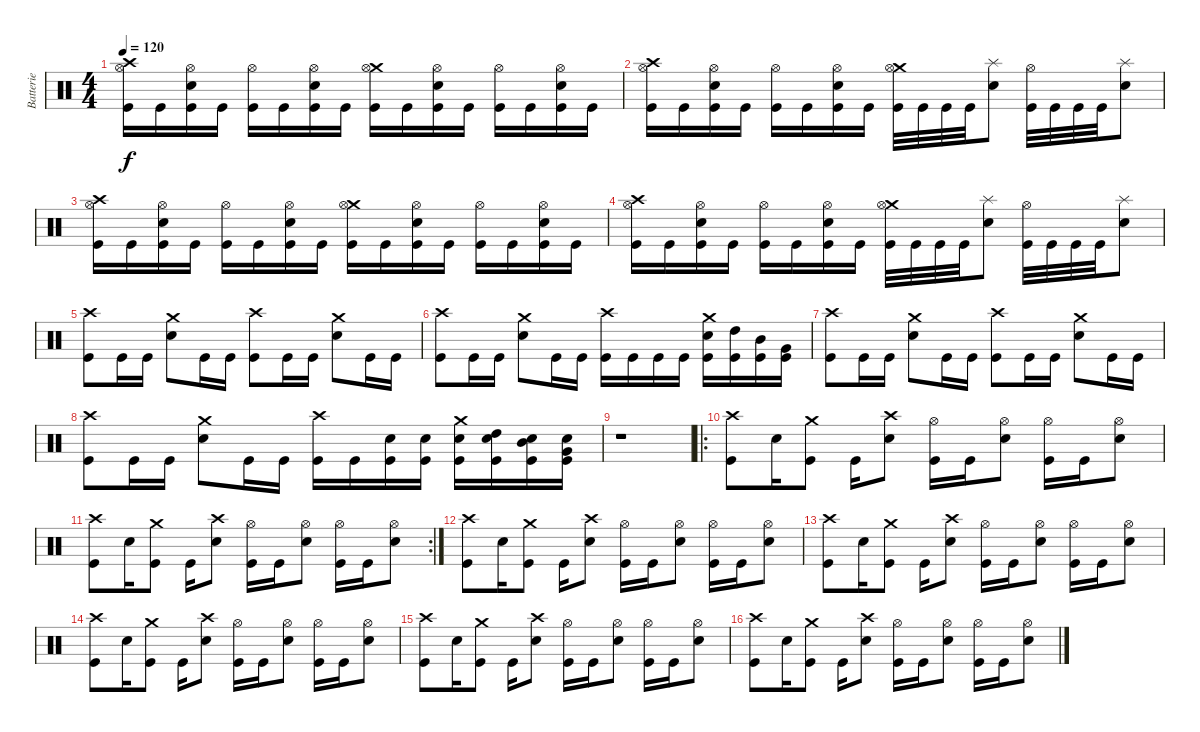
\track ("Batterie" "Batterie") {instrument percussion}
\staff {score}
\articulation defaults
\ts (4 4)
\tempo 120
\clef neutral
\ks c
("Crash high (hit)" "Hi-Hat (open)" "Kick (hit)").16{dy f} "Kick (hit)".16 ("Snare (hit) 2" "Hi-Hat (open)" "Kick (hit)").16 "Kick (hit)".16 ("Hi-Hat (open)" "Kick (hit)").16 "Kick (hit)".16 ("Snare (hit) 2" "Hi-Hat (open)" "Kick (hit)").16 "Kick (hit)".16 ("Crash medium (hit)" "Hi-Hat (open)" "Kick (hit)").16 "Kick (hit)".16 ("Snare (hit) 2" "Hi-Hat (open)" "Kick (hit)").16 "Kick (hit)".16 ("Hi-Hat (open)" "Kick (hit)").16 "Kick (hit)".16 ("Snare (hit) 2" "Hi-Hat (open)" "Kick (hit)").16 "Kick (hit)".16 |
("Crash high (hit)" "Hi-Hat (open)" "Kick (hit)").16 "Kick (hit)".16 ("Snare (hit) 2" "Hi-Hat (open)" "Kick (hit)").16 "Kick (hit)".16 ("Hi-Hat (open)" "Kick (hit)").16 "Kick (hit)".16 ("Snare (hit) 2" "Hi-Hat (open)" "Kick (hit)").16 "Kick (hit)".16 ("Crash medium (hit)" "Hi-Hat (open)" "Kick (hit)").32 "Kick (hit)".32 "Kick (hit)".32 "Kick (hit)".32 ("Splash (hit)" "Snare (hit) 2").8 ("Hi-Hat (open)" "Kick (hit)").32 "Kick (hit)".32 "Kick (hit)".32 "Kick (hit)".32 ("Splash (hit)" "Snare (hit) 2").8 |
("Crash high (hit)" "Hi-Hat (open)" "Kick (hit)").16 "Kick (hit)".16 ("Snare (hit) 2" "Hi-Hat (open)" "Kick (hit)").16 "Kick (hit)".16 ("Hi-Hat (open)" "Kick (hit)").16 "Kick (hit)".16 ("Snare (hit) 2" "Hi-Hat (open)" "Kick (hit)").16 "Kick (hit)".16 ("Crash medium (hit)" "Hi-Hat (open)" "Kick (hit)").16 "Kick (hit)".16 ("Snare (hit) 2" "Hi-Hat (open)" "Kick (hit)").16 "Kick (hit)".16 ("Hi-Hat (open)" "Kick (hit)").16 "Kick (hit)".16 ("Snare (hit) 2" "Hi-Hat (open)" "Kick (hit)").16 "Kick (hit)".16 |
("Crash high (hit)" "Hi-Hat (open)" "Kick (hit)").16 "Kick (hit)".16 ("Snare (hit) 2" "Hi-Hat (open)" "Kick (hit)").16 "Kick (hit)".16 ("Hi-Hat (open)" "Kick (hit)").16 "Kick (hit)".16 ("Snare (hit) 2" "Hi-Hat (open)" "Kick (hit)").16 "Kick (hit)".16 ("Crash medium (hit)" "Hi-Hat (open)" "Kick (hit)").32 "Kick (hit)".32 "Kick (hit)".32 "Kick (hit)".32 ("Splash (hit)" "Snare (hit) 2").8 ("Hi-Hat (open)" "Kick (hit)").32 "Kick (hit)".32 "Kick (hit)".32 "Kick (hit)".32 ("Splash (hit)" "Snare (hit) 2").8 |
("Crash high (hit)" "Kick (hit)").8 "Kick (hit)".16 "Kick (hit)".16 ("Crash medium (hit)" "Snare (hit) 2").8 "Kick (hit)".16 "Kick (hit)".16 ("Crash high (hit)" "Kick (hit)").8 "Kick (hit)".16 "Kick (hit)".16 ("Crash medium (hit)" "Snare (hit) 2").8 "Kick (hit)".16 "Kick (hit)".16 |
("Crash high (hit)" "Kick (hit)").8 "Kick (hit)".16 "Kick (hit)".16 ("Crash medium (hit)" "Snare (hit) 2").8 "Kick (hit)".16 "Kick (hit)".16 ("Crash high (hit)" "Kick (hit)").16 "Kick (hit)".16 "Kick (hit)".16 "Kick (hit)".16 ("Crash medium (hit)" "Snare (hit) 2" "Kick (hit)").16 ("High Tom (hit)" "Kick (hit)").16 ("Mid Tom (hit)" "Kick (hit)").16 ("Very Low Tom (hit)" "Kick (hit)").16 |
("Crash high (hit)" "Kick (hit)").8 "Kick (hit)".16 "Kick (hit)".16 ("Crash medium (hit)" "Snare (hit) 2").8 "Kick (hit)".16 "Kick (hit)".16 ("Crash high (hit)" "Kick (hit)").8 "Kick (hit)".16 "Kick (hit)".16 ("Crash medium (hit)" "Snare (hit) 2").8 "Kick (hit)".16 "Kick (hit)".16 |
("Crash high (hit)" "Kick (hit)").8 "Kick (hit)".16 "Kick (hit)".16 ("Crash medium (hit)" "Snare (hit) 2").8 "Kick (hit)".16 "Kick (hit)".16 ("Crash high (hit)" "Kick (hit)").16 "Kick (hit)".16 ("Snare (hit) 2" "Kick (hit)").16 ("Snare (hit) 2" "Kick (hit)").16 ("Crash medium (hit)" "Snare (hit) 2" "Kick (hit)").16 ("Snare (hit) 2" "High Tom (hit)" "Kick (hit)").16 ("Snare (hit) 2" "Mid Tom (hit)" "Kick (hit)").16 ("Snare (hit) 2" "Very Low Tom (hit)" "Kick (hit)").16 |
r.1 |
\ro
("Crash high (hit)" "Kick (hit)").8 "Snare (hit) 2".16 ("Crash medium (hit)" "Kick (hit)").8 "Kick (hit)".16 ("Crash high (hit)" "Snare (hit) 2").8 ("Hi-Hat (open)" "Kick (hit)").16 "Kick (hit)".16 ("Hi-Hat (open)" "Snare (hit) 2").8 ("Hi-Hat (open)" "Kick (hit)").16 "Kick (hit)".16 ("Hi-Hat (open)" "Snare (hit) 2").8 |
\rc 2
("Crash high (hit)" "Kick (hit)").8 "Snare (hit) 2".16 ("Crash medium (hit)" "Kick (hit)").8 "Kick (hit)".16 ("Crash high (hit)" "Snare (hit) 2").8 ("Hi-Hat (open)" "Kick (hit)").16 "Kick (hit)".16 ("Hi-Hat (open)" "Snare (hit) 2").8 ("Hi-Hat (open)" "Kick (hit)").16 "Kick (hit)".16 ("Hi-Hat (open)" "Snare (hit) 2").8 |
("Crash high (hit)" "Kick (hit)").8 "Snare (hit) 2".16 ("Crash medium (hit)" "Kick (hit)").8 "Kick (hit)".16 ("Crash high (hit)" "Snare (hit) 2").8 ("Hi-Hat (open)" "Kick (hit)").16 "Kick (hit)".16 ("Hi-Hat (open)" "Snare (hit) 2").8 ("Hi-Hat (open)" "Kick (hit)").16 "Kick (hit)".16 ("Hi-Hat (open)" "Snare (hit) 2").8 |
("Crash high (hit)" "Kick (hit)").8 "Snare (hit) 2".16 ("Crash medium (hit)" "Kick (hit)").8 "Kick (hit)".16 ("Crash high (hit)" "Snare (hit) 2").8 ("Hi-Hat (open)" "Kick (hit)").16 "Kick (hit)".16 ("Hi-Hat (open)" "Snare (hit) 2").8 ("Hi-Hat (open)" "Kick (hit)").16 "Kick (hit)".16 ("Hi-Hat (open)" "Snare (hit) 2").8 |
("Crash high (hit)" "Kick (hit)").8 "Snare (hit) 2".16 ("Crash medium (hit)" "Kick (hit)").8 "Kick (hit)".16 ("Crash high (hit)" "Snare (hit) 2").8 ("Hi-Hat (open)" "Kick (hit)").16 "Kick (hit)".16 ("Hi-Hat (open)" "Snare (hit) 2").8 ("Hi-Hat (open)" "Kick (hit)").16 "Kick (hit)".16 ("Hi-Hat (open)" "Snare (hit) 2").8 |
("Crash high (hit)" "Kick (hit)").8 "Snare (hit) 2".16 ("Crash medium (hit)" "Kick (hit)").8 "Kick (hit)".16 ("Crash high (hit)" "Snare (hit) 2").8 ("Hi-Hat (open)" "Kick (hit)").16 "Kick (hit)".16 ("Hi-Hat (open)" "Snare (hit) 2").8 ("Hi-Hat (open)" "Kick (hit)").16 "Kick (hit)".16 ("Hi-Hat (open)" "Snare (hit) 2").8 |
("Crash high (hit)" "Kick (hit)").8 "Snare (hit) 2".16 ("Crash medium (hit)" "Kick (hit)").8 "Kick (hit)".16 ("Crash high (hit)" "Snare (hit) 2").8 ("Hi-Hat (open)" "Kick (hit)").16 "Kick (hit)".16 ("Hi-Hat (open)" "Snare (hit) 2").8 ("Hi-Hat (open)" "Kick (hit)").16 "Kick (hit)".16 ("Hi-Hat (open)" "Snare (hit) 2").8
